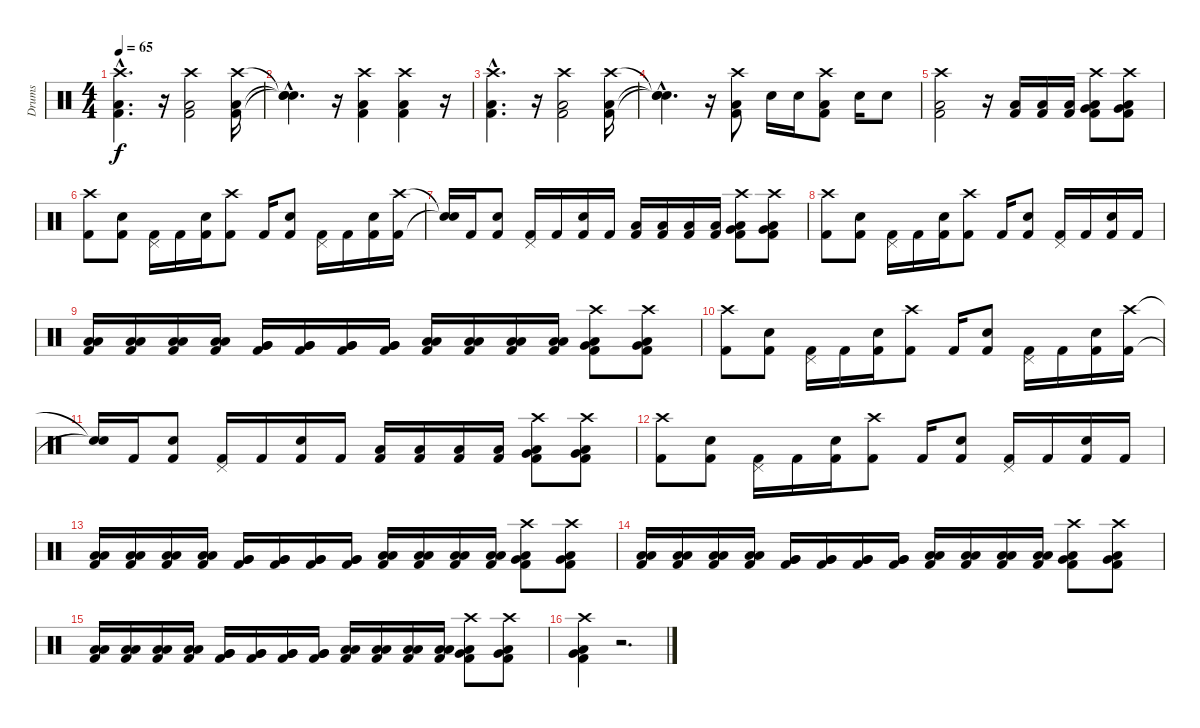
\track ("Drums" "Drums") {instrument percussion}
\staff {score}
\articulation defaults
\ts (4 4)
\tempo 65
\clef neutral
\ks c
("Crash high (hit)"{hac} "Low Floor Tom (hit)"{hac} "Kick (hit) 2"{hac}).4{d dy f} r.16 ("Crash high (hit)" "Low Floor Tom (hit)" "Kick (hit) 2").2 ("Crash high (hit)" "Low Floor Tom (hit)" "Kick (hit) 2").16 |
("Snare (hit)"{hac t} "Snare (hit)"{hac t} "Snare (hit)"{hac t}).4{d} r.16 ("Crash high (hit)" "Low Floor Tom (hit)" "Kick (hit) 2").4 ("Crash high (hit)" "Low Floor Tom (hit)" "Kick (hit) 2").4 r.16 |
("Crash high (hit)"{hac} "Low Floor Tom (hit)"{hac} "Kick (hit) 2"{hac}).4{d} r.16 ("Crash high (hit)" "Low Floor Tom (hit)" "Kick (hit) 2").2 ("Crash high (hit)" "Low Floor Tom (hit)" "Kick (hit) 2").16 |
("Snare (hit)"{hac t} "Snare (hit)"{hac t} "Snare (hit)"{hac t}).4{d} r.16 ("Crash high (hit)" "Low Floor Tom (hit)" "Kick (hit) 2").8 "Electric Snare (hit)".16 "Electric Snare (hit)".16 ("Crash high (hit)" "Low Floor Tom (hit)" "Kick (hit) 2").8 "Electric Snare (hit)".16 "Electric Snare (hit)".8 |
("Crash high (hit)" "Low Floor Tom (hit)" "Kick (hit) 2").2 r.16 ("Low Floor Tom (hit)" "Kick (hit) 2").16 ("Low Floor Tom (hit)" "Kick (hit) 2").16 ("Low Floor Tom (hit)" "Kick (hit) 2").16 ("Crash high (hit)" "Low Floor Tom (hit)" "Very Low Tom (hit)" "Kick (hit) 2").8 ("Crash high (hit)" "Low Floor Tom (hit)" "Very Low Tom (hit)" "Kick (hit) 2").8 |
("Crash high (hit)" "Kick (hit) 2").8 ("Electric Snare (hit)" "Kick (hit) 2").8 ("Pedal Hi-Hat (hit)" "Kick (hit) 2").16 "Kick (hit) 2".16 ("Electric Snare (hit)" "Kick (hit) 2").16 ("Crash high (hit)" "Kick (hit) 2").8 "Kick (hit) 2".16 ("Electric Snare (hit)" "Kick (hit) 2").8 ("Pedal Hi-Hat (hit)" "Kick (hit) 2").16 "Kick (hit) 2".16 ("Electric Snare (hit)" "Kick (hit) 2").16 ("Crash high (hit)" "Kick (hit) 2").16 |
("Snare (hit)"{t} "Snare (hit)"{t}).16 "Kick (hit) 2".16 ("Electric Snare (hit)" "Kick (hit) 2").8 ("Pedal Hi-Hat (hit)" "Kick (hit) 2").16 "Kick (hit) 2".16 ("Electric Snare (hit)" "Kick (hit) 2").16 "Kick (hit) 2".16 ("Low Floor Tom (hit)" "Kick (hit) 2").16 ("Low Floor Tom (hit)" "Kick (hit) 2").16 ("Low Floor Tom (hit)" "Kick (hit) 2").16 ("Low Floor Tom (hit)" "Kick (hit) 2").16 ("Crash high (hit)" "Very Low Tom (hit)" "Low Floor Tom (hit)" "Kick (hit) 2").8 ("Crash high (hit)" "Very Low Tom (hit)" "Low Floor Tom (hit)" "Kick (hit) 2").8 |
("Crash high (hit)" "Kick (hit) 2").8 ("Electric Snare (hit)" "Kick (hit) 2").8 ("Pedal Hi-Hat (hit)" "Kick (hit) 2").16 "Kick (hit) 2".16 ("Electric Snare (hit)" "Kick (hit) 2").16 ("Crash high (hit)" "Kick (hit) 2").8 "Kick (hit) 2".16 ("Electric Snare (hit)" "Kick (hit) 2").8 ("Pedal Hi-Hat (hit)" "Kick (hit) 2").16 "Kick (hit) 2".16 ("Electric Snare (hit)" "Kick (hit) 2").16 "Kick (hit) 2".16 |
("Low Floor Tom (hit)" "Low Floor Tom (hit)" "Kick (hit) 2").16 ("Low Floor Tom (hit)" "Low Floor Tom (hit)" "Kick (hit) 2").16 ("Low Floor Tom (hit)" "Low Floor Tom (hit)" "Kick (hit) 2").16 ("Low Floor Tom (hit)" "Low Floor Tom (hit)" "Kick (hit) 2").16 ("Very Low Tom (hit)" "Very Low Tom (hit)" "Kick (hit) 2").16 ("Very Low Tom (hit)" "Very Low Tom (hit)" "Kick (hit) 2").16 ("Very Low Tom (hit)" "Very Low Tom (hit)" "Kick (hit) 2").16 ("Very Low Tom (hit)" "Very Low Tom (hit)" "Kick (hit) 2").16 ("Low Tom (hit)" "Low Tom (hit)" "Kick (hit) 2").16 ("Low Tom (hit)" "Low Tom (hit)" "Kick (hit) 2").16 ("Low Tom (hit)" "Low Tom (hit)" "Kick (hit) 2").16 ("Low Tom (hit)" "Low Tom (hit)" "Kick (hit) 2").16 ("Crash high (hit)" "Very Low Tom (hit)" "Low Floor Tom (hit)" "Kick (hit) 2").8 ("Crash high (hit)" "Very Low Tom (hit)" "Low Floor Tom (hit)" "Kick (hit) 2").8 |
("Crash high (hit)" "Kick (hit) 2").8 ("Electric Snare (hit)" "Kick (hit) 2").8 ("Pedal Hi-Hat (hit)" "Kick (hit) 2").16 "Kick (hit) 2".16 ("Electric Snare (hit)" "Kick (hit) 2").16 ("Crash high (hit)" "Kick (hit) 2").8 "Kick (hit) 2".16 ("Electric Snare (hit)" "Kick (hit) 2").8 ("Pedal Hi-Hat (hit)" "Kick (hit) 2").16 "Kick (hit) 2".16 ("Electric Snare (hit)" "Kick (hit) 2").16 ("Crash high (hit)" "Kick (hit) 2").16 |
("Snare (hit)"{t} "Snare (hit)"{t}).16 "Kick (hit) 2".16 ("Electric Snare (hit)" "Kick (hit) 2").8 ("Pedal Hi-Hat (hit)" "Kick (hit) 2").16 "Kick (hit) 2".16 ("Electric Snare (hit)" "Kick (hit) 2").16 "Kick (hit) 2".16 ("Low Floor Tom (hit)" "Kick (hit) 2").16 ("Low Floor Tom (hit)" "Kick (hit) 2").16 ("Low Floor Tom (hit)" "Kick (hit) 2").16 ("Low Floor Tom (hit)" "Kick (hit) 2").16 ("Crash high (hit)" "Very Low Tom (hit)" "Low Floor Tom (hit)" "Kick (hit) 2").8 ("Crash high (hit)" "Very Low Tom (hit)" "Low Floor Tom (hit)" "Kick (hit) 2").8 |
("Crash high (hit)" "Kick (hit) 2").8 ("Electric Snare (hit)" "Kick (hit) 2").8 ("Pedal Hi-Hat (hit)" "Kick (hit) 2").16 "Kick (hit) 2".16 ("Electric Snare (hit)" "Kick (hit) 2").16 ("Crash high (hit)" "Kick (hit) 2").8 "Kick (hit) 2".16 ("Electric Snare (hit)" "Kick (hit) 2").8 ("Pedal Hi-Hat (hit)" "Kick (hit) 2").16 "Kick (hit) 2".16 ("Electric Snare (hit)" "Kick (hit) 2").16 "Kick (hit) 2".16 |
("Low Floor Tom (hit)" "Low Floor Tom (hit)" "Kick (hit) 2").16 ("Low Floor Tom (hit)" "Low Floor Tom (hit)" "Kick (hit) 2").16 ("Low Floor Tom (hit)" "Low Floor Tom (hit)" "Kick (hit) 2").16 ("Low Floor Tom (hit)" "Low Floor Tom (hit)" "Kick (hit) 2").16 ("Very Low Tom (hit)" "Very Low Tom (hit)" "Kick (hit) 2").16 ("Very Low Tom (hit)" "Very Low Tom (hit)" "Kick (hit) 2").16 ("Very Low Tom (hit)" "Very Low Tom (hit)" "Kick (hit) 2").16 ("Very Low Tom (hit)" "Very Low Tom (hit)" "Kick (hit) 2").16 ("Low Tom (hit)" "Low Tom (hit)" "Kick (hit) 2").16 ("Low Tom (hit)" "Low Tom (hit)" "Kick (hit) 2").16 ("Low Tom (hit)" "Low Tom (hit)" "Kick (hit) 2").16 ("Low Tom (hit)" "Low Tom (hit)" "Kick (hit) 2").16 ("Crash high (hit)" "Very Low Tom (hit)" "Low Floor Tom (hit)" "Kick (hit) 2").8 ("Crash high (hit)" "Very Low Tom (hit)" "Low Floor Tom (hit)" "Kick (hit) 2").8 |
("Low Floor Tom (hit)" "Low Floor Tom (hit)" "Kick (hit) 2").16 ("Low Floor Tom (hit)" "Low Floor Tom (hit)" "Kick (hit) 2").16 ("Low Floor Tom (hit)" "Low Floor Tom (hit)" "Kick (hit) 2").16 ("Low Floor Tom (hit)" "Low Floor Tom (hit)" "Kick (hit) 2").16 ("Very Low Tom (hit)" "Very Low Tom (hit)" "Kick (hit) 2").16 ("Very Low Tom (hit)" "Very Low Tom (hit)" "Kick (hit) 2").16 ("Very Low Tom (hit)" "Very Low Tom (hit)" "Kick (hit) 2").16 ("Very Low Tom (hit)" "Very Low Tom (hit)" "Kick (hit) 2").16 ("Low Tom (hit)" "Low Tom (hit)" "Kick (hit) 2").16 ("Low Tom (hit)" "Low Tom (hit)" "Kick (hit) 2").16 ("Low Tom (hit)" "Low Tom (hit)" "Kick (hit) 2").16 ("Low Tom (hit)" "Low Tom (hit)" "Kick (hit) 2").16 ("Crash high (hit)" "Very Low Tom (hit)" "Low Floor Tom (hit)" "Kick (hit) 2").8 ("Crash high (hit)" "Very Low Tom (hit)" "Low Floor Tom (hit)" "Kick (hit) 2").8 |
("Low Floor Tom (hit)" "Low Floor Tom (hit)" "Kick (hit) 2").16 ("Low Floor Tom (hit)" "Low Floor Tom (hit)" "Kick (hit) 2").16 ("Low Floor Tom (hit)" "Low Floor Tom (hit)" "Kick (hit) 2").16 ("Low Floor Tom (hit)" "Low Floor Tom (hit)" "Kick (hit) 2").16 ("Very Low Tom (hit)" "Very Low Tom (hit)" "Kick (hit) 2").16 ("Very Low Tom (hit)" "Very Low Tom (hit)" "Kick (hit) 2").16 ("Very Low Tom (hit)" "Very Low Tom (hit)" "Kick (hit) 2").16 ("Very Low Tom (hit)" "Very Low Tom (hit)" "Kick (hit) 2").16 ("Low Tom (hit)" "Low Tom (hit)" "Kick (hit) 2").16 ("Low Tom (hit)" "Low Tom (hit)" "Kick (hit) 2").16 ("Low Tom (hit)" "Low Tom (hit)" "Kick (hit) 2").16 ("Low Tom (hit)" "Low Tom (hit)" "Kick (hit) 2").16 ("Crash high (hit)" "Very Low Tom (hit)" "Low Floor Tom (hit)" "Kick (hit) 2").8 ("Crash high (hit)" "Very Low Tom (hit)" "Low Floor Tom (hit)" "Kick (hit) 2").8 |
("Crash high (hit)" "Very Low Tom (hit)" "Low Floor Tom (hit)" "Kick (hit) 2").4 r.2{d}
